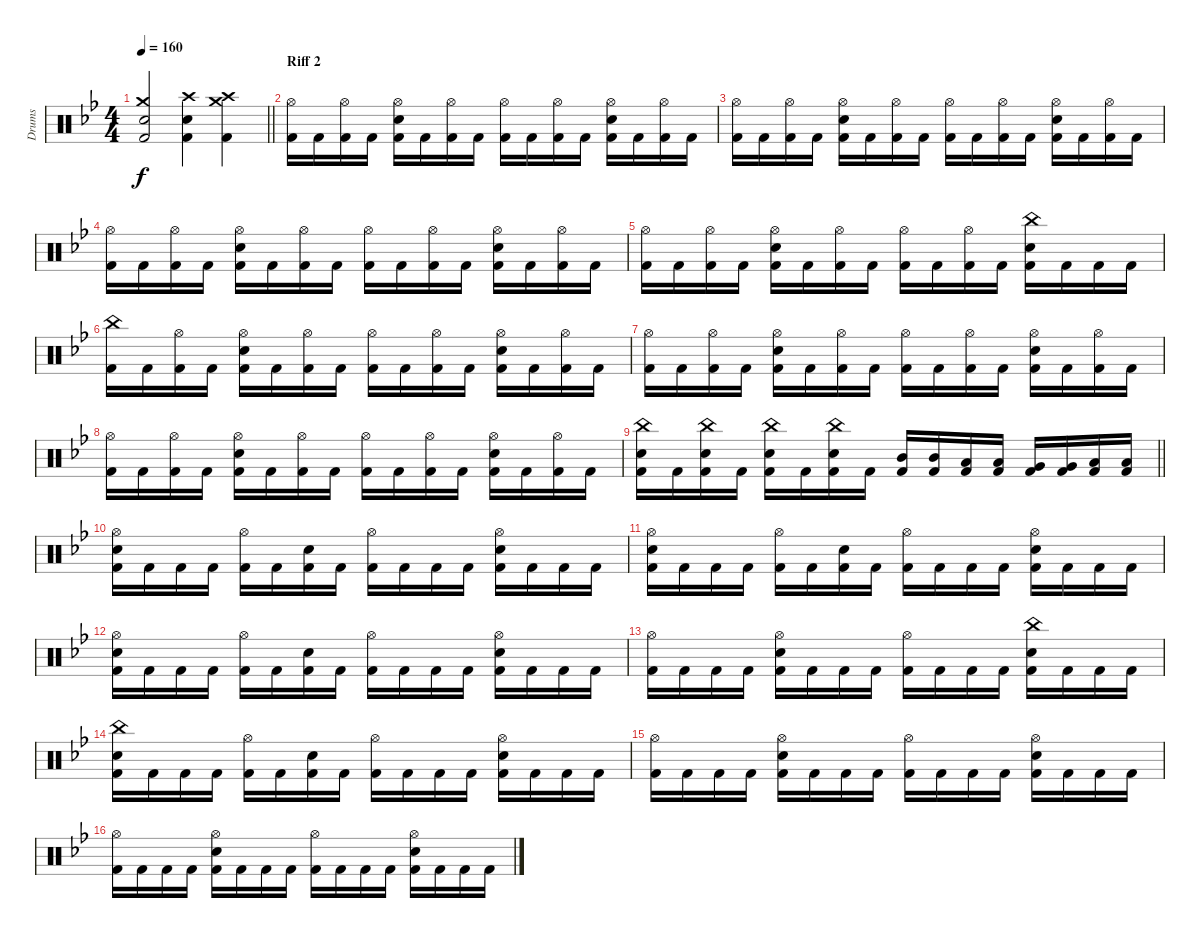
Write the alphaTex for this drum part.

\track ("Drums" "Drums") {instrument percussion}
\staff {score}
\articulation defaults
\ts (4 4)
\tempo 160
\clef neutral
\barLineRight lightlight
\ks bb
("Kick (hit) 2" "Crash medium (hit)" "Electric Snare (hit)").2{dy f} ("Kick (hit) 2" "Crash high (hit)" "Electric Snare (hit)").4 ("Kick (hit) 2" "Crash medium (hit)" "Crash high (hit)").4 |
\section ("" "Riff 2")
("Hi-Hat (open)" "Kick (hit) 2").16 "Kick (hit) 2".16 ("Hi-Hat (open)" "Kick (hit) 2").16 "Kick (hit) 2".16 ("Hi-Hat (open)" "Electric Snare (hit)" "Kick (hit) 2").16 "Kick (hit) 2".16 ("Hi-Hat (open)" "Kick (hit) 2").16 "Kick (hit) 2".16 ("Hi-Hat (open)" "Kick (hit) 2").16 "Kick (hit) 2".16 ("Hi-Hat (open)" "Kick (hit) 2").16 "Kick (hit) 2".16 ("Hi-Hat (open)" "Electric Snare (hit)" "Kick (hit) 2").16 "Kick (hit) 2".16 ("Hi-Hat (open)" "Kick (hit) 2").16 "Kick (hit) 2".16 |
("Hi-Hat (open)" "Kick (hit) 2").16 "Kick (hit) 2".16 ("Hi-Hat (open)" "Kick (hit) 2").16 "Kick (hit) 2".16 ("Hi-Hat (open)" "Electric Snare (hit)" "Kick (hit) 2").16 "Kick (hit) 2".16 ("Hi-Hat (open)" "Kick (hit) 2").16 "Kick (hit) 2".16 ("Hi-Hat (open)" "Kick (hit) 2").16 "Kick (hit) 2".16 ("Hi-Hat (open)" "Kick (hit) 2").16 "Kick (hit) 2".16 ("Hi-Hat (open)" "Electric Snare (hit)" "Kick (hit) 2").16 "Kick (hit) 2".16 ("Hi-Hat (open)" "Kick (hit) 2").16 "Kick (hit) 2".16 |
("Hi-Hat (open)" "Kick (hit) 2").16 "Kick (hit) 2".16 ("Hi-Hat (open)" "Kick (hit) 2").16 "Kick (hit) 2".16 ("Hi-Hat (open)" "Electric Snare (hit)" "Kick (hit) 2").16 "Kick (hit) 2".16 ("Hi-Hat (open)" "Kick (hit) 2").16 "Kick (hit) 2".16 ("Hi-Hat (open)" "Kick (hit) 2").16 "Kick (hit) 2".16 ("Hi-Hat (open)" "Kick (hit) 2").16 "Kick (hit) 2".16 ("Hi-Hat (open)" "Electric Snare (hit)" "Kick (hit) 2").16 "Kick (hit) 2".16 ("Hi-Hat (open)" "Kick (hit) 2").16 "Kick (hit) 2".16 |
("Hi-Hat (open)" "Kick (hit) 2").16 "Kick (hit) 2".16 ("Hi-Hat (open)" "Kick (hit) 2").16 "Kick (hit) 2".16 ("Hi-Hat (open)" "Electric Snare (hit)" "Kick (hit) 2").16 "Kick (hit) 2".16 ("Hi-Hat (open)" "Kick (hit) 2").16 "Kick (hit) 2".16 ("Hi-Hat (open)" "Kick (hit) 2").16 "Kick (hit) 2".16 ("Hi-Hat (open)" "Kick (hit) 2").16 "Kick (hit) 2".16 ("China (hit)" "Electric Snare (hit)" "Kick (hit) 2").16 "Kick (hit) 2".16 "Kick (hit) 2".16 "Kick (hit) 2".16 |
("China (hit)" "Kick (hit) 2").16 "Kick (hit) 2".16 ("Hi-Hat (open)" "Kick (hit) 2").16 "Kick (hit) 2".16 ("Hi-Hat (open)" "Electric Snare (hit)" "Kick (hit) 2").16 "Kick (hit) 2".16 ("Hi-Hat (open)" "Kick (hit) 2").16 "Kick (hit) 2".16 ("Hi-Hat (open)" "Kick (hit) 2").16 "Kick (hit) 2".16 ("Hi-Hat (open)" "Kick (hit) 2").16 "Kick (hit) 2".16 ("Hi-Hat (open)" "Electric Snare (hit)" "Kick (hit) 2").16 "Kick (hit) 2".16 ("Hi-Hat (open)" "Kick (hit) 2").16 "Kick (hit) 2".16 |
("Hi-Hat (open)" "Kick (hit) 2").16 "Kick (hit) 2".16 ("Hi-Hat (open)" "Kick (hit) 2").16 "Kick (hit) 2".16 ("Hi-Hat (open)" "Electric Snare (hit)" "Kick (hit) 2").16 "Kick (hit) 2".16 ("Hi-Hat (open)" "Kick (hit) 2").16 "Kick (hit) 2".16 ("Hi-Hat (open)" "Kick (hit) 2").16 "Kick (hit) 2".16 ("Hi-Hat (open)" "Kick (hit) 2").16 "Kick (hit) 2".16 ("Hi-Hat (open)" "Electric Snare (hit)" "Kick (hit) 2").16 "Kick (hit) 2".16 ("Hi-Hat (open)" "Kick (hit) 2").16 "Kick (hit) 2".16 |
("Hi-Hat (open)" "Kick (hit) 2").16 "Kick (hit) 2".16 ("Hi-Hat (open)" "Kick (hit) 2").16 "Kick (hit) 2".16 ("Hi-Hat (open)" "Electric Snare (hit)" "Kick (hit) 2").16 "Kick (hit) 2".16 ("Hi-Hat (open)" "Kick (hit) 2").16 "Kick (hit) 2".16 ("Hi-Hat (open)" "Kick (hit) 2").16 "Kick (hit) 2".16 ("Hi-Hat (open)" "Kick (hit) 2").16 "Kick (hit) 2".16 ("Hi-Hat (open)" "Electric Snare (hit)" "Kick (hit) 2").16 "Kick (hit) 2".16 ("Hi-Hat (open)" "Kick (hit) 2").16 "Kick (hit) 2".16 |
\barLineRight lightlight
("China (hit)" "Electric Snare (hit)" "Kick (hit) 2").16 "Kick (hit) 2".16 ("China (hit)" "Electric Snare (hit)" "Kick (hit) 2").16 "Kick (hit) 2".16 ("China (hit)" "Electric Snare (hit)" "Kick (hit) 2").16 "Kick (hit) 2".16 ("China (hit)" "Electric Snare (hit)" "Kick (hit) 2").16 "Kick (hit) 2".16 ("Mid Tom (hit)" "Kick (hit) 2").16 ("Mid Tom (hit)" "Kick (hit) 2").16 ("Low Tom (hit)" "Kick (hit) 2").16 ("Low Tom (hit)" "Kick (hit) 2").16 ("Very Low Tom (hit)" "Kick (hit) 2").16 ("Very Low Tom (hit)" "Kick (hit) 2").16 ("Low Floor Tom (hit)" "Kick (hit) 2").16 ("Low Floor Tom (hit)" "Kick (hit) 2").16 |
("Hi-Hat (open)" "Electric Snare (hit)" "Kick (hit) 2").16 "Kick (hit) 2".16 "Kick (hit) 2".16 "Kick (hit) 2".16 ("Hi-Hat (open)" "Kick (hit) 2").16 "Kick (hit) 2".16 ("Electric Snare (hit)" "Kick (hit) 2").16 "Kick (hit) 2".16 ("Hi-Hat (open)" "Kick (hit) 2").16 "Kick (hit) 2".16 "Kick (hit) 2".16 "Kick (hit) 2".16 ("Hi-Hat (open)" "Electric Snare (hit)" "Kick (hit) 2").16 "Kick (hit) 2".16 "Kick (hit) 2".16 "Kick (hit) 2".16 |
("Hi-Hat (open)" "Electric Snare (hit)" "Kick (hit) 2").16 "Kick (hit) 2".16 "Kick (hit) 2".16 "Kick (hit) 2".16 ("Hi-Hat (open)" "Kick (hit) 2").16 "Kick (hit) 2".16 ("Electric Snare (hit)" "Kick (hit) 2").16 "Kick (hit) 2".16 ("Hi-Hat (open)" "Kick (hit) 2").16 "Kick (hit) 2".16 "Kick (hit) 2".16 "Kick (hit) 2".16 ("Hi-Hat (open)" "Electric Snare (hit)" "Kick (hit) 2").16 "Kick (hit) 2".16 "Kick (hit) 2".16 "Kick (hit) 2".16 |
("Hi-Hat (open)" "Electric Snare (hit)" "Kick (hit) 2").16 "Kick (hit) 2".16 "Kick (hit) 2".16 "Kick (hit) 2".16 ("Hi-Hat (open)" "Kick (hit) 2").16 "Kick (hit) 2".16 ("Electric Snare (hit)" "Kick (hit) 2").16 "Kick (hit) 2".16 ("Hi-Hat (open)" "Kick (hit) 2").16 "Kick (hit) 2".16 "Kick (hit) 2".16 "Kick (hit) 2".16 ("Hi-Hat (open)" "Electric Snare (hit)" "Kick (hit) 2").16 "Kick (hit) 2".16 "Kick (hit) 2".16 "Kick (hit) 2".16 |
("Hi-Hat (open)" "Kick (hit) 2").16 "Kick (hit) 2".16 "Kick (hit) 2".16 "Kick (hit) 2".16 ("Hi-Hat (open)" "Electric Snare (hit)" "Kick (hit) 2").16 "Kick (hit) 2".16 "Kick (hit) 2".16 "Kick (hit) 2".16 ("Hi-Hat (open)" "Kick (hit) 2").16 "Kick (hit) 2".16 "Kick (hit) 2".16 "Kick (hit) 2".16 ("China (hit)" "Electric Snare (hit)" "Kick (hit) 2").16 "Kick (hit) 2".16 "Kick (hit) 2".16 "Kick (hit) 2".16 |
("China (hit)" "Electric Snare (hit)" "Kick (hit) 2").16 "Kick (hit) 2".16 "Kick (hit) 2".16 "Kick (hit) 2".16 ("Hi-Hat (open)" "Kick (hit) 2").16 "Kick (hit) 2".16 ("Electric Snare (hit)" "Kick (hit) 2").16 "Kick (hit) 2".16 ("Hi-Hat (open)" "Kick (hit) 2").16 "Kick (hit) 2".16 "Kick (hit) 2".16 "Kick (hit) 2".16 ("Hi-Hat (open)" "Electric Snare (hit)" "Kick (hit) 2").16 "Kick (hit) 2".16 "Kick (hit) 2".16 "Kick (hit) 2".16 |
("Hi-Hat (open)" "Kick (hit) 2").16 "Kick (hit) 2".16 "Kick (hit) 2".16 "Kick (hit) 2".16 ("Hi-Hat (open)" "Electric Snare (hit)" "Kick (hit) 2").16 "Kick (hit) 2".16 "Kick (hit) 2".16 "Kick (hit) 2".16 ("Hi-Hat (open)" "Kick (hit) 2").16 "Kick (hit) 2".16 "Kick (hit) 2".16 "Kick (hit) 2".16 ("Hi-Hat (open)" "Electric Snare (hit)" "Kick (hit) 2").16 "Kick (hit) 2".16 "Kick (hit) 2".16 "Kick (hit) 2".16 |
("Hi-Hat (open)" "Kick (hit) 2").16 "Kick (hit) 2".16 "Kick (hit) 2".16 "Kick (hit) 2".16 ("Hi-Hat (open)" "Electric Snare (hit)" "Kick (hit) 2").16 "Kick (hit) 2".16 "Kick (hit) 2".16 "Kick (hit) 2".16 ("Hi-Hat (open)" "Kick (hit) 2").16 "Kick (hit) 2".16 "Kick (hit) 2".16 "Kick (hit) 2".16 ("Hi-Hat (open)" "Electric Snare (hit)" "Kick (hit) 2").16 "Kick (hit) 2".16 "Kick (hit) 2".16 "Kick (hit) 2".16
